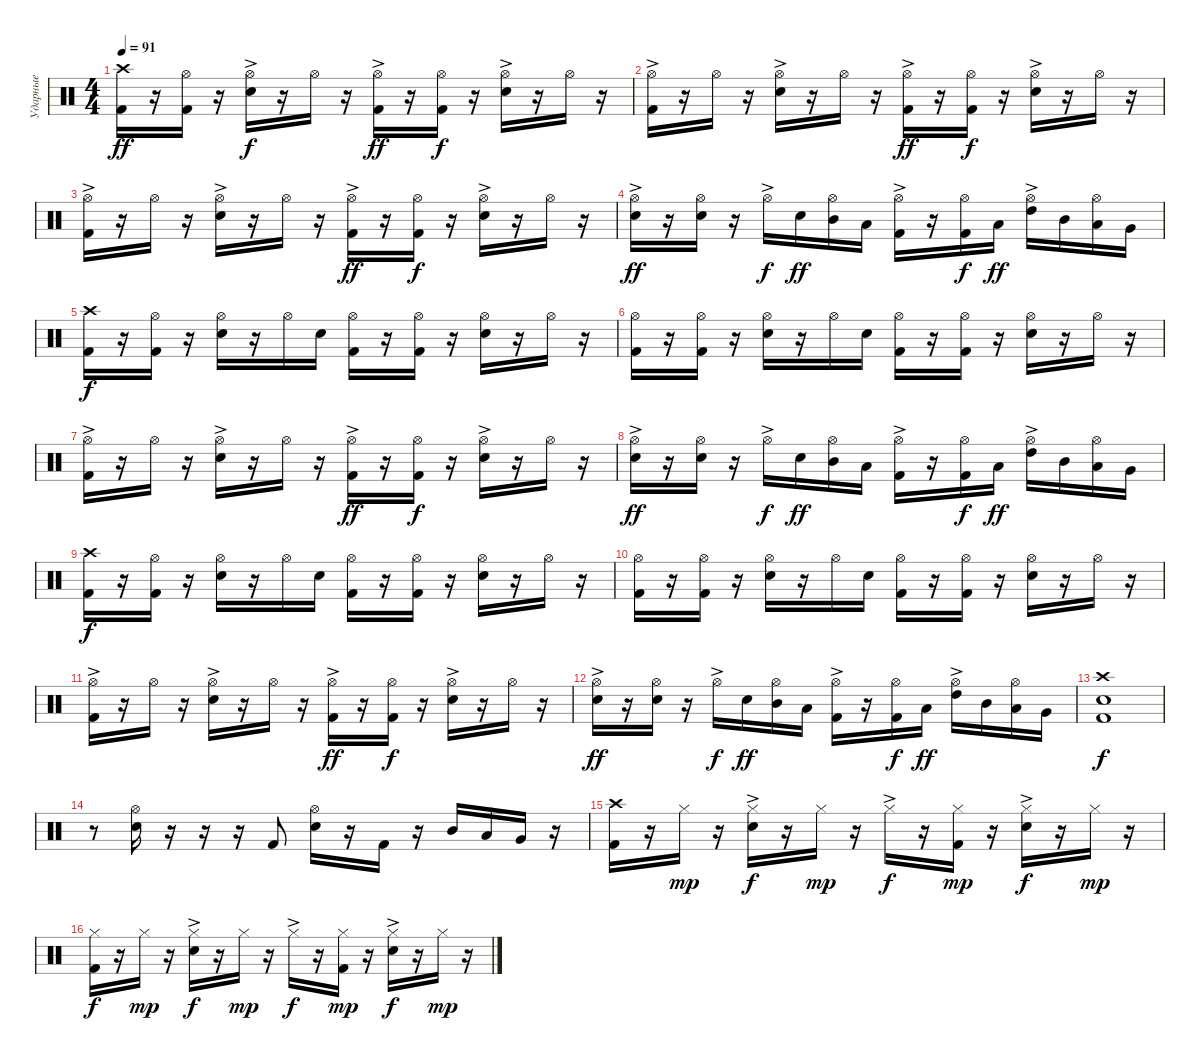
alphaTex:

\track ("Ударные" "Ударные") {instrument percussion}
\staff {score}
\articulation defaults
\ts (4 4)
\tempo 91
\clef neutral
\ks c
("Crash high (hit)" "Kick (hit) 2").16{dy ff} r.16 ("Hi-Hat (open)" "Kick (hit) 2").16 r.16 ("Hi-Hat (open)"{ac} "Snare (hit) 2").16{dy f} r.16 "Hi-Hat (open)".16 r.16 ("Hi-Hat (open)"{ac} "Kick (hit) 2").16{dy ff} r.16 ("Hi-Hat (open)" "Kick (hit) 2").16{dy f} r.16 ("Hi-Hat (open)"{ac} "Snare (hit) 2").16 r.16 "Hi-Hat (open)".16 r.16 |
("Hi-Hat (open)"{ac} "Kick (hit) 2").16 r.16 "Hi-Hat (open)".16 r.16 ("Hi-Hat (open)"{ac} "Snare (hit) 2").16 r.16 "Hi-Hat (open)".16 r.16 ("Hi-Hat (open)"{ac} "Kick (hit) 2").16{dy ff} r.16 ("Hi-Hat (open)" "Kick (hit) 2").16{dy f} r.16 ("Hi-Hat (open)"{ac} "Snare (hit) 2").16 r.16 "Hi-Hat (open)".16 r.16 |
("Hi-Hat (open)"{ac} "Kick (hit) 2").16 r.16 "Hi-Hat (open)".16 r.16 ("Hi-Hat (open)"{ac} "Snare (hit) 2").16 r.16 "Hi-Hat (open)".16 r.16 ("Hi-Hat (open)"{ac} "Kick (hit) 2").16{dy ff} r.16 ("Hi-Hat (open)" "Kick (hit) 2").16{dy f} r.16 ("Hi-Hat (open)"{ac} "Snare (hit) 2").16 r.16 "Hi-Hat (open)".16 r.16 |
("Hi-Hat (open)"{ac} "Snare (hit) 2").16{dy ff} r.16 ("Hi-Hat (open)" "Snare (hit) 2").16 r.16 "Hi-Hat (open)"{ac}.16{dy f} "Snare (hit) 2".16{dy ff} ("Hi-Hat (open)" "Mid Tom (hit)").16 "Low Tom (hit)".16 ("Hi-Hat (open)"{ac} "Kick (hit) 2").16 r.16 ("Hi-Hat (open)" "Kick (hit) 2").16{dy f} "Low Tom (hit)".16{dy ff} ("Hi-Hat (open)"{ac} "High Tom (hit)").16 "Mid Tom (hit)".16 ("Hi-Hat (open)" "Low Tom (hit)").16 "Very Low Tom (hit)".16 |
("Crash high (hit)" "Kick (hit) 2").16{dy f} r.16 ("Hi-Hat (open)" "Kick (hit) 2").16 r.16 ("Hi-Hat (open)" "Snare (hit) 2").16 r.16 "Hi-Hat (open)".16 "Snare (hit) 2".16 ("Hi-Hat (open)" "Kick (hit) 2").16 r.16 ("Hi-Hat (open)" "Kick (hit) 2").16 r.16 ("Hi-Hat (open)" "Snare (hit) 2").16 r.16 "Hi-Hat (open)".16 r.16 |
("Hi-Hat (open)" "Kick (hit) 2").16 r.16 ("Hi-Hat (open)" "Kick (hit) 2").16 r.16 ("Hi-Hat (open)" "Snare (hit) 2").16 r.16 "Hi-Hat (open)".16 "Snare (hit) 2".16 ("Hi-Hat (open)" "Kick (hit) 2").16 r.16 ("Hi-Hat (open)" "Kick (hit) 2").16 r.16 ("Hi-Hat (open)" "Snare (hit) 2").16 r.16 "Hi-Hat (open)".16 r.16 |
("Hi-Hat (open)"{ac} "Kick (hit) 2").16 r.16 "Hi-Hat (open)".16 r.16 ("Hi-Hat (open)"{ac} "Snare (hit) 2").16 r.16 "Hi-Hat (open)".16 r.16 ("Hi-Hat (open)"{ac} "Kick (hit) 2").16{dy ff} r.16 ("Hi-Hat (open)" "Kick (hit) 2").16{dy f} r.16 ("Hi-Hat (open)"{ac} "Snare (hit) 2").16 r.16 "Hi-Hat (open)".16 r.16 |
("Hi-Hat (open)"{ac} "Snare (hit) 2").16{dy ff} r.16 ("Hi-Hat (open)" "Snare (hit) 2").16 r.16 "Hi-Hat (open)"{ac}.16{dy f} "Snare (hit) 2".16{dy ff} ("Hi-Hat (open)" "Mid Tom (hit)").16 "Low Tom (hit)".16 ("Hi-Hat (open)"{ac} "Kick (hit) 2").16 r.16 ("Hi-Hat (open)" "Kick (hit) 2").16{dy f} "Low Tom (hit)".16{dy ff} ("Hi-Hat (open)"{ac} "High Tom (hit)").16 "Mid Tom (hit)".16 ("Hi-Hat (open)" "Low Tom (hit)").16 "Very Low Tom (hit)".16 |
("Crash high (hit)" "Kick (hit) 2").16{dy f} r.16 ("Hi-Hat (open)" "Kick (hit) 2").16 r.16 ("Hi-Hat (open)" "Snare (hit) 2").16 r.16 "Hi-Hat (open)".16 "Snare (hit) 2".16 ("Hi-Hat (open)" "Kick (hit) 2").16 r.16 ("Hi-Hat (open)" "Kick (hit) 2").16 r.16 ("Hi-Hat (open)" "Snare (hit) 2").16 r.16 "Hi-Hat (open)".16 r.16 |
("Hi-Hat (open)" "Kick (hit) 2").16 r.16 ("Hi-Hat (open)" "Kick (hit) 2").16 r.16 ("Hi-Hat (open)" "Snare (hit) 2").16 r.16 "Hi-Hat (open)".16 "Snare (hit) 2".16 ("Hi-Hat (open)" "Kick (hit) 2").16 r.16 ("Hi-Hat (open)" "Kick (hit) 2").16 r.16 ("Hi-Hat (open)" "Snare (hit) 2").16 r.16 "Hi-Hat (open)".16 r.16 |
("Hi-Hat (open)"{ac} "Kick (hit) 2").16 r.16 "Hi-Hat (open)".16 r.16 ("Hi-Hat (open)"{ac} "Snare (hit) 2").16 r.16 "Hi-Hat (open)".16 r.16 ("Hi-Hat (open)"{ac} "Kick (hit) 2").16{dy ff} r.16 ("Hi-Hat (open)" "Kick (hit) 2").16{dy f} r.16 ("Hi-Hat (open)"{ac} "Snare (hit) 2").16 r.16 "Hi-Hat (open)".16 r.16 |
("Hi-Hat (open)"{ac} "Snare (hit) 2").16{dy ff} r.16 ("Hi-Hat (open)" "Snare (hit) 2").16 r.16 "Hi-Hat (open)"{ac}.16{dy f} "Snare (hit) 2".16{dy ff} ("Hi-Hat (open)" "Mid Tom (hit)").16 "Low Tom (hit)".16 ("Hi-Hat (open)"{ac} "Kick (hit) 2").16 r.16 ("Hi-Hat (open)" "Kick (hit) 2").16{dy f} "Low Tom (hit)".16{dy ff} ("Hi-Hat (open)"{ac} "High Tom (hit)").16 "Mid Tom (hit)".16 ("Hi-Hat (open)" "Low Tom (hit)").16 "Very Low Tom (hit)".16 |
("Crash high (hit)" "Snare (hit) 2" "Kick (hit) 2").1{dy f} |
r.8 ("Hi-Hat (open)" "Snare (hit) 2").16 r.16 r.16 r.16 "Kick (hit) 2".8 ("Hi-Hat (open)" "Snare (hit) 2").16 r.16 "Kick (hit) 2".16 r.16 "Mid Tom (hit)".16 "Low Tom (hit)".16 "Very Low Tom (hit)".16 r.16 |
("Crash high (hit)" "Kick (hit) 2").16 r.16 "Hi-Hat (closed)".16{dy mp} r.16 ("Hi-Hat (closed)"{ac} "Snare (hit) 2").16{dy f} r.16 "Hi-Hat (closed)".16{dy mp} r.16 "Hi-Hat (closed)"{ac}.16{dy f} r.16 ("Hi-Hat (closed)" "Kick (hit) 2").16{dy mp} r.16 ("Hi-Hat (closed)"{ac} "Snare (hit) 2").16{dy f} r.16 "Hi-Hat (closed)".16{dy mp} r.16 |
("Hi-Hat (closed)" "Kick (hit) 2").16{dy f} r.16 "Hi-Hat (closed)".16{dy mp} r.16 ("Hi-Hat (closed)"{ac} "Snare (hit) 2").16{dy f} r.16 "Hi-Hat (closed)".16{dy mp} r.16 "Hi-Hat (closed)"{ac}.16{dy f} r.16 ("Hi-Hat (closed)" "Kick (hit) 2").16{dy mp} r.16 ("Hi-Hat (closed)"{ac} "Snare (hit) 2").16{dy f} r.16 "Hi-Hat (closed)".16{dy mp} r.16
